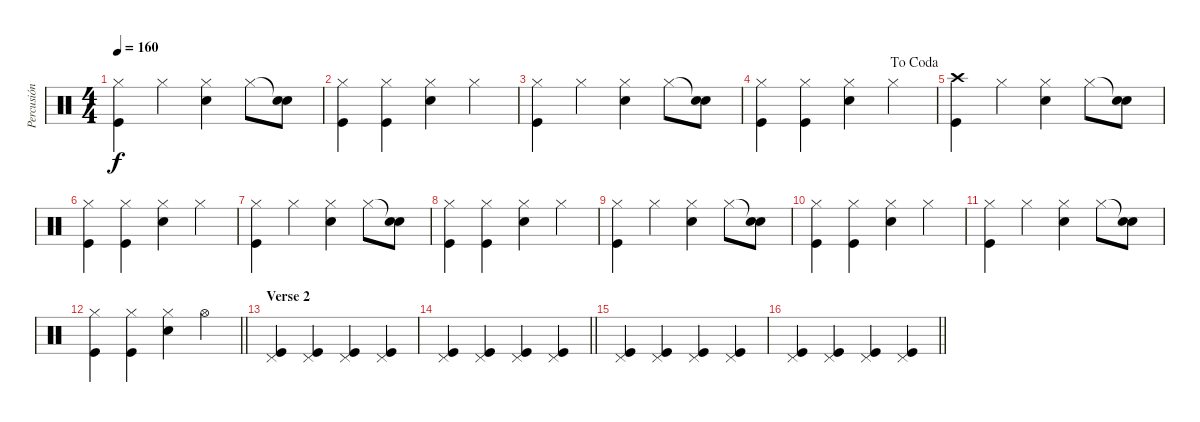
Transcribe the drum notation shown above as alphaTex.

\track ("Percusión" "Percusión") {instrument percussion}
\staff {score}
\articulation defaults
\ts (4 4)
\tempo 160
\clef neutral
\ks c
("Hi-Hat (closed)" "Kick (hit)").4{dy f} "Hi-Hat (closed)".4 ("Hi-Hat (closed)" "Snare (hit) 2").4 "Hi-Hat (closed)".8 ("Snare (hit)"{t} "Snare (hit) 2").8 |
("Hi-Hat (closed)" "Kick (hit)").4 ("Hi-Hat (closed)" "Kick (hit)").4 ("Hi-Hat (closed)" "Snare (hit) 2").4 "Hi-Hat (closed)".4 |
("Hi-Hat (closed)" "Kick (hit)").4 "Hi-Hat (closed)".4 ("Hi-Hat (closed)" "Snare (hit) 2").4 "Hi-Hat (closed)".8 ("Snare (hit)"{t} "Snare (hit) 2").8 |
\jump dacoda
("Hi-Hat (closed)" "Kick (hit)").4 ("Hi-Hat (closed)" "Kick (hit)").4 ("Hi-Hat (closed)" "Snare (hit) 2").4 "Hi-Hat (closed)".4 |
("Crash high (hit)" "Kick (hit)").4 "Hi-Hat (closed)".4 ("Hi-Hat (closed)" "Snare (hit) 2").4 "Hi-Hat (closed)".8 ("Snare (hit)"{t} "Snare (hit) 2").8 |
("Hi-Hat (closed)" "Kick (hit)").4 ("Hi-Hat (closed)" "Kick (hit)").4 ("Hi-Hat (closed)" "Snare (hit) 2").4 "Hi-Hat (closed)".4 |
("Hi-Hat (closed)" "Kick (hit)").4 "Hi-Hat (closed)".4 ("Hi-Hat (closed)" "Snare (hit) 2").4 "Hi-Hat (closed)".8 ("Snare (hit)"{t} "Snare (hit) 2").8 |
("Hi-Hat (closed)" "Kick (hit)").4 ("Hi-Hat (closed)" "Kick (hit)").4 ("Hi-Hat (closed)" "Snare (hit) 2").4 "Hi-Hat (closed)".4 |
("Hi-Hat (closed)" "Kick (hit)").4 "Hi-Hat (closed)".4 ("Hi-Hat (closed)" "Snare (hit) 2").4 "Hi-Hat (closed)".8 ("Snare (hit)"{t} "Snare (hit) 2").8 |
("Hi-Hat (closed)" "Kick (hit)").4 ("Hi-Hat (closed)" "Kick (hit)").4 ("Hi-Hat (closed)" "Snare (hit) 2").4 "Hi-Hat (closed)".4 |
("Hi-Hat (closed)" "Kick (hit)").4 "Hi-Hat (closed)".4 ("Hi-Hat (closed)" "Snare (hit) 2").4 "Hi-Hat (closed)".8 ("Snare (hit)"{t} "Snare (hit) 2").8 |
\barLineRight lightlight
("Hi-Hat (closed)" "Kick (hit)").4 ("Hi-Hat (closed)" "Kick (hit)").4 ("Hi-Hat (closed)" "Snare (hit) 2").4 "Hi-Hat (open)".4 |
\section ("" "Verse 2")
("Pedal Hi-Hat (hit)" "Kick (hit)").4 ("Pedal Hi-Hat (hit)" "Kick (hit)").4 ("Pedal Hi-Hat (hit)" "Kick (hit)").4 ("Pedal Hi-Hat (hit)" "Kick (hit)").4 |
\barLineRight lightlight
("Pedal Hi-Hat (hit)" "Kick (hit)").4 ("Pedal Hi-Hat (hit)" "Kick (hit)").4 ("Pedal Hi-Hat (hit)" "Kick (hit)").4 ("Pedal Hi-Hat (hit)" "Kick (hit)").4 |
("Pedal Hi-Hat (hit)" "Kick (hit)").4 ("Pedal Hi-Hat (hit)" "Kick (hit)").4 ("Pedal Hi-Hat (hit)" "Kick (hit)").4 ("Pedal Hi-Hat (hit)" "Kick (hit)").4 |
\barLineRight lightlight
("Pedal Hi-Hat (hit)" "Kick (hit)").4 ("Pedal Hi-Hat (hit)" "Kick (hit)").4 ("Pedal Hi-Hat (hit)" "Kick (hit)").4 ("Pedal Hi-Hat (hit)" "Kick (hit)").4
